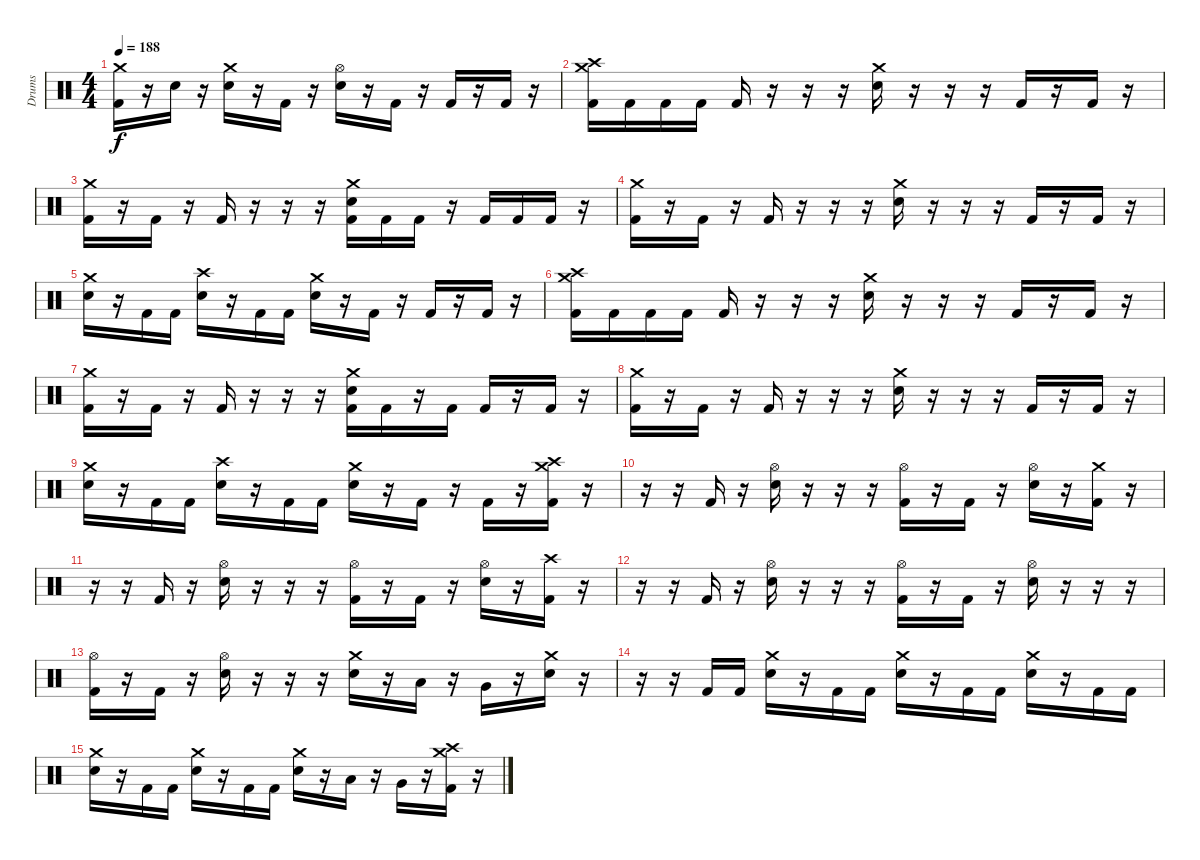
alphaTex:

\track ("Drums" "Drums") {instrument percussion}
\staff {score}
\articulation defaults
\ts (4 4)
\tempo 188
\clef neutral
\ks c
("Crash medium (hit)" "Kick (hit) 2").16{dy f} r.16 "Snare (hit) 2".16 r.16 ("Crash medium (hit)" "Snare (hit) 2").16 r.16 "Kick (hit) 2".16 r.16 ("Hi-Hat (open)" "Snare (hit) 2").16 r.16 "Kick (hit) 2".16 r.16 "Kick (hit) 2".16 r.16 "Kick (hit) 2".16 r.16 |
("Crash medium (hit)" "Crash high (hit)" "Kick (hit) 2").16 "Kick (hit) 2".16 "Kick (hit) 2".16 "Kick (hit) 2".16 "Kick (hit) 2".16 r.16 r.16 r.16 ("Crash medium (hit)" "Snare (hit) 2").16 r.16 r.16 r.16 "Kick (hit) 2".16 r.16 "Kick (hit) 2".16 r.16 |
("Crash medium (hit)" "Kick (hit) 2").16 r.16 "Kick (hit) 2".16 r.16 "Kick (hit) 2".16 r.16 r.16 r.16 ("Crash medium (hit)" "Snare (hit) 2" "Kick (hit) 2").16 "Kick (hit) 2".16 "Kick (hit) 2".16 r.16 "Kick (hit) 2".16 "Kick (hit) 2".16 "Kick (hit) 2".16 r.16 |
("Crash medium (hit)" "Kick (hit) 2").16 r.16 "Kick (hit) 2".16 r.16 "Kick (hit) 2".16 r.16 r.16 r.16 ("Crash medium (hit)" "Snare (hit) 2").16 r.16 r.16 r.16 "Kick (hit) 2".16 r.16 "Kick (hit) 2".16 r.16 |
("Crash medium (hit)" "Snare (hit) 2").16 r.16 "Kick (hit) 2".16 "Kick (hit) 2".16 ("Crash high (hit)" "Snare (hit) 2").16 r.16 "Kick (hit) 2".16 "Kick (hit) 2".16 ("Crash medium (hit)" "Snare (hit) 2").16 r.16 "Kick (hit) 2".16 r.16 "Kick (hit) 2".16 r.16 "Kick (hit) 2".16 r.16 |
("Crash medium (hit)" "Crash high (hit)" "Kick (hit) 2").16 "Kick (hit) 2".16 "Kick (hit) 2".16 "Kick (hit) 2".16 "Kick (hit) 2".16 r.16 r.16 r.16 ("Crash medium (hit)" "Snare (hit) 2").16 r.16 r.16 r.16 "Kick (hit) 2".16 r.16 "Kick (hit) 2".16 r.16 |
("Crash medium (hit)" "Kick (hit) 2").16 r.16 "Kick (hit) 2".16 r.16 "Kick (hit) 2".16 r.16 r.16 r.16 ("Crash medium (hit)" "Snare (hit) 2" "Kick (hit) 2").16 "Kick (hit) 2".16 r.16 "Kick (hit) 2".16 "Kick (hit) 2".16 r.16 "Kick (hit) 2".16 r.16 |
("Crash medium (hit)" "Kick (hit) 2").16 r.16 "Kick (hit) 2".16 r.16 "Kick (hit) 2".16 r.16 r.16 r.16 ("Crash medium (hit)" "Snare (hit) 2").16 r.16 r.16 r.16 "Kick (hit) 2".16 r.16 "Kick (hit) 2".16 r.16 |
("Crash medium (hit)" "Snare (hit) 2").16 r.16 "Kick (hit) 2".16 "Kick (hit) 2".16 ("Crash high (hit)" "Snare (hit) 2").16 r.16 "Kick (hit) 2".16 "Kick (hit) 2".16 ("Crash medium (hit)" "Snare (hit) 2").16 r.16 "Kick (hit) 2".16 r.16 "Kick (hit) 2".16 r.16 ("Crash medium (hit)" "Crash high (hit)" "Kick (hit) 2").16 r.16 |
r.16 r.16 "Kick (hit) 2".16 r.16 ("Hi-Hat (open)" "Snare (hit) 2").16 r.16 r.16 r.16 ("Hi-Hat (open)" "Kick (hit) 2").16 r.16 "Kick (hit) 2".16 r.16 ("Hi-Hat (open)" "Snare (hit) 2").16 r.16 ("Crash medium (hit)" "Kick (hit) 2").16 r.16 |
r.16 r.16 "Kick (hit) 2".16 r.16 ("Hi-Hat (open)" "Snare (hit) 2").16 r.16 r.16 r.16 ("Hi-Hat (open)" "Kick (hit) 2").16 r.16 "Kick (hit) 2".16 r.16 ("Hi-Hat (open)" "Snare (hit) 2").16 r.16 ("Crash high (hit)" "Kick (hit) 2").16 r.16 |
r.16 r.16 "Kick (hit) 2".16 r.16 ("Hi-Hat (open)" "Snare (hit) 2").16 r.16 r.16 r.16 ("Hi-Hat (open)" "Kick (hit) 2").16 r.16 "Kick (hit) 2".16 r.16 ("Hi-Hat (open)" "Snare (hit) 2").16 r.16 r.16 r.16 |
("Hi-Hat (open)" "Kick (hit) 2").16 r.16 "Kick (hit) 2".16 r.16 ("Hi-Hat (open)" "Snare (hit) 2").16 r.16 r.16 r.16 ("Crash medium (hit)" "Snare (hit) 2").16 r.16 "Low Tom (hit)".16 r.16 "Very Low Tom (hit)".16 r.16 ("Crash medium (hit)" "Snare (hit) 2").16 r.16 |
r.16 r.16 "Kick (hit) 2".16 "Kick (hit) 2".16 ("Crash medium (hit)" "Snare (hit) 2").16 r.16 "Kick (hit) 2".16 "Kick (hit) 2".16 ("Crash medium (hit)" "Snare (hit) 2").16 r.16 "Kick (hit) 2".16 "Kick (hit) 2".16 ("Crash medium (hit)" "Snare (hit) 2").16 r.16 "Kick (hit) 2".16 "Kick (hit) 2".16 |
("Crash medium (hit)" "Snare (hit) 2").16 r.16 "Kick (hit) 2".16 "Kick (hit) 2".16 ("Crash medium (hit)" "Snare (hit) 2").16 r.16 "Kick (hit) 2".16 "Kick (hit) 2".16 ("Crash medium (hit)" "Snare (hit) 2").16 r.16 "Low Tom (hit)".16 r.16 "Very Low Tom (hit)".16 r.16 ("Crash medium (hit)" "Crash high (hit)" "Kick (hit) 2").16 r.16
